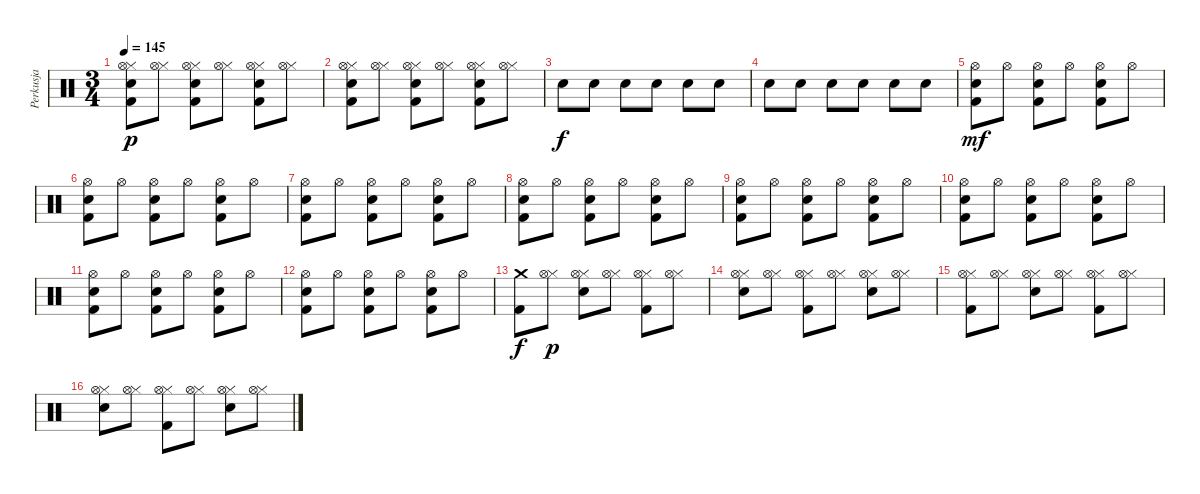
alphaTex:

\track ("Perkusja" "Perkusja") {instrument percussion}
\staff {score}
\articulation defaults
\ts (3 4)
\tempo 145
\clef neutral
\ks c
("Kick (hit) 2" "Electric Snare (hit)" "Hi-Hat (closed)" "Hi-Hat (open)").8{dy p} ("Hi-Hat (closed)" "Hi-Hat (open)").8 ("Kick (hit) 2" "Electric Snare (hit)" "Hi-Hat (closed)" "Hi-Hat (open)").8 ("Hi-Hat (closed)" "Hi-Hat (open)").8 ("Kick (hit) 2" "Electric Snare (hit)" "Hi-Hat (closed)" "Hi-Hat (open)").8 ("Hi-Hat (closed)" "Hi-Hat (open)").8 |
("Kick (hit) 2" "Electric Snare (hit)" "Hi-Hat (closed)" "Hi-Hat (open)").8 ("Hi-Hat (closed)" "Hi-Hat (open)").8 ("Kick (hit) 2" "Electric Snare (hit)" "Hi-Hat (closed)" "Hi-Hat (open)").8 ("Hi-Hat (closed)" "Hi-Hat (open)").8 ("Kick (hit) 2" "Electric Snare (hit)" "Hi-Hat (closed)" "Hi-Hat (open)").8 ("Hi-Hat (closed)" "Hi-Hat (open)").8 |
"Electric Snare (hit)".8{dy f} "Electric Snare (hit)".8 "Electric Snare (hit)".8 "Electric Snare (hit)".8 "Electric Snare (hit)".8 "Electric Snare (hit)".8 |
"Electric Snare (hit)".8 "Electric Snare (hit)".8 "Electric Snare (hit)".8 "Electric Snare (hit)".8 "Electric Snare (hit)".8 "Electric Snare (hit)".8 |
("Kick (hit) 2" "Electric Snare (hit)" "Hi-Hat (open)").8{dy mf} "Hi-Hat (open)".8 ("Kick (hit) 2" "Electric Snare (hit)" "Hi-Hat (open)").8 "Hi-Hat (open)".8 ("Kick (hit) 2" "Electric Snare (hit)" "Hi-Hat (open)").8 "Hi-Hat (open)".8 |
("Kick (hit) 2" "Electric Snare (hit)" "Hi-Hat (open)").8 "Hi-Hat (open)".8 ("Kick (hit) 2" "Electric Snare (hit)" "Hi-Hat (open)").8 "Hi-Hat (open)".8 ("Kick (hit) 2" "Electric Snare (hit)" "Hi-Hat (open)").8 "Hi-Hat (open)".8 |
("Kick (hit) 2" "Electric Snare (hit)" "Hi-Hat (open)").8 "Hi-Hat (open)".8 ("Kick (hit) 2" "Electric Snare (hit)" "Hi-Hat (open)").8 "Hi-Hat (open)".8 ("Kick (hit) 2" "Electric Snare (hit)" "Hi-Hat (open)").8 "Hi-Hat (open)".8 |
("Kick (hit) 2" "Electric Snare (hit)" "Hi-Hat (open)").8 "Hi-Hat (open)".8 ("Kick (hit) 2" "Electric Snare (hit)" "Hi-Hat (open)").8 "Hi-Hat (open)".8 ("Kick (hit) 2" "Electric Snare (hit)" "Hi-Hat (open)").8 "Hi-Hat (open)".8 |
("Kick (hit) 2" "Electric Snare (hit)" "Hi-Hat (open)").8 "Hi-Hat (open)".8 ("Kick (hit) 2" "Electric Snare (hit)" "Hi-Hat (open)").8 "Hi-Hat (open)".8 ("Kick (hit) 2" "Electric Snare (hit)" "Hi-Hat (open)").8 "Hi-Hat (open)".8 |
("Kick (hit) 2" "Electric Snare (hit)" "Hi-Hat (open)").8 "Hi-Hat (open)".8 ("Kick (hit) 2" "Electric Snare (hit)" "Hi-Hat (open)").8 "Hi-Hat (open)".8 ("Kick (hit) 2" "Electric Snare (hit)" "Hi-Hat (open)").8 "Hi-Hat (open)".8 |
("Kick (hit) 2" "Electric Snare (hit)" "Hi-Hat (open)").8 "Hi-Hat (open)".8 ("Kick (hit) 2" "Electric Snare (hit)" "Hi-Hat (open)").8 "Hi-Hat (open)".8 ("Kick (hit) 2" "Electric Snare (hit)" "Hi-Hat (open)").8 "Hi-Hat (open)".8 |
("Kick (hit) 2" "Electric Snare (hit)" "Hi-Hat (open)").8 "Hi-Hat (open)".8 ("Kick (hit) 2" "Electric Snare (hit)" "Hi-Hat (open)").8 "Hi-Hat (open)".8 ("Kick (hit) 2" "Electric Snare (hit)" "Hi-Hat (open)").8 "Hi-Hat (open)".8 |
("Kick (hit) 2" "Crash medium (hit)").8{dy f} ("Hi-Hat (closed)" "Hi-Hat (open)").8{dy p} ("Electric Snare (hit)" "Hi-Hat (closed)" "Hi-Hat (open)").8 ("Hi-Hat (closed)" "Hi-Hat (open)").8 ("Kick (hit) 2" "Hi-Hat (closed)" "Hi-Hat (open)").8 ("Hi-Hat (closed)" "Hi-Hat (open)").8 |
("Electric Snare (hit)" "Hi-Hat (closed)" "Hi-Hat (open)").8 ("Hi-Hat (closed)" "Hi-Hat (open)").8 ("Kick (hit) 2" "Hi-Hat (closed)" "Hi-Hat (open)").8 ("Hi-Hat (closed)" "Hi-Hat (open)").8 ("Electric Snare (hit)" "Hi-Hat (closed)" "Hi-Hat (open)").8 ("Hi-Hat (closed)" "Hi-Hat (open)").8 |
("Kick (hit) 2" "Hi-Hat (closed)" "Hi-Hat (open)").8 ("Hi-Hat (closed)" "Hi-Hat (open)").8 ("Electric Snare (hit)" "Hi-Hat (closed)" "Hi-Hat (open)").8 ("Hi-Hat (closed)" "Hi-Hat (open)").8 ("Kick (hit) 2" "Hi-Hat (closed)" "Hi-Hat (open)").8 ("Hi-Hat (closed)" "Hi-Hat (open)").8 |
("Electric Snare (hit)" "Hi-Hat (closed)" "Hi-Hat (open)").8 ("Hi-Hat (closed)" "Hi-Hat (open)").8 ("Kick (hit) 2" "Hi-Hat (closed)" "Hi-Hat (open)").8 ("Hi-Hat (closed)" "Hi-Hat (open)").8 ("Electric Snare (hit)" "Hi-Hat (closed)" "Hi-Hat (open)").8 ("Hi-Hat (closed)" "Hi-Hat (open)").8
